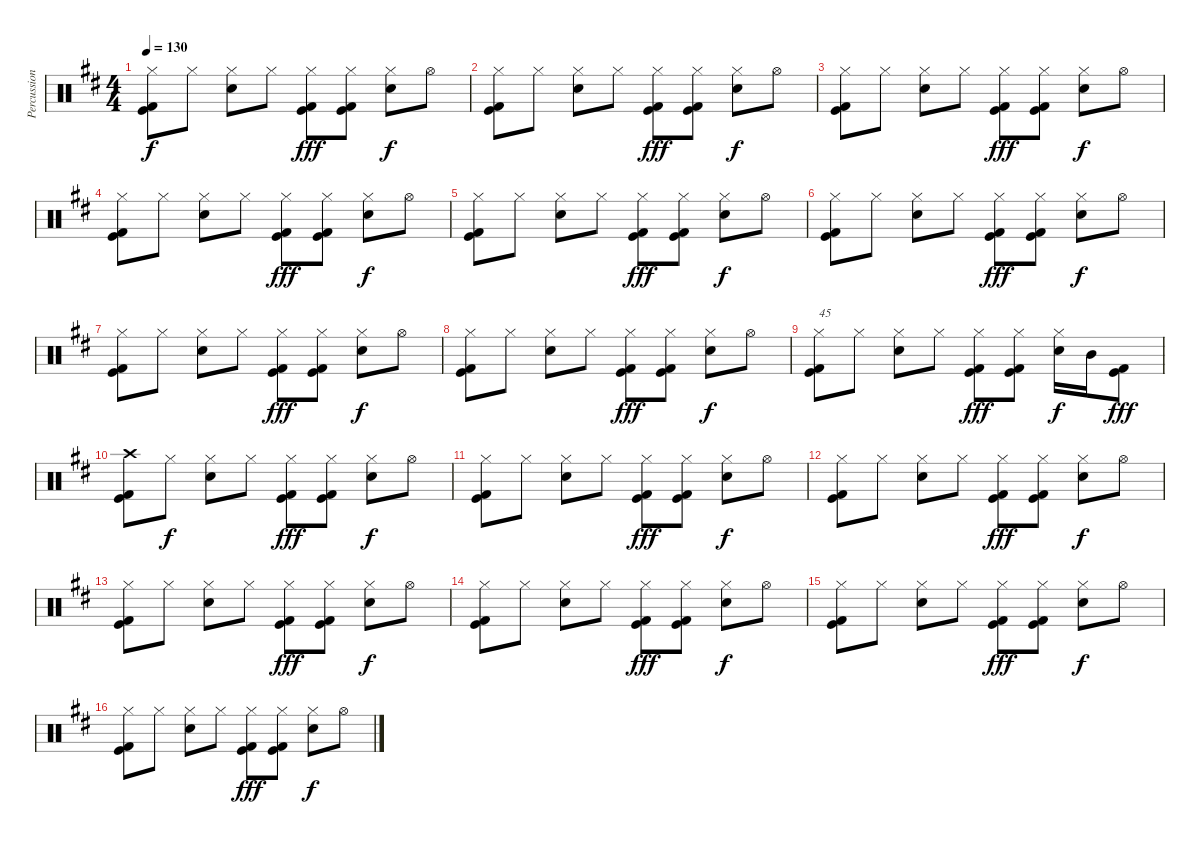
\track ("Percussion" "Percussion") {instrument percussion}
\staff {score}
\articulation defaults
\ts (4 4)
\tempo 130
\clef neutral
\ks d
("Hi-Hat (closed)" "Kick (hit)" "Kick (hit) 2").8{dy f} "Hi-Hat (closed)".8 ("Hi-Hat (closed)" "Electric Snare (hit)").8 "Hi-Hat (closed)".8 ("Hi-Hat (closed)" "Kick (hit)" "Kick (hit) 2").8{dy fff} ("Hi-Hat (closed)" "Kick (hit)" "Kick (hit) 2").8 ("Hi-Hat (closed)" "Electric Snare (hit)").8{dy f} "Hi-Hat (open)".8 |
("Hi-Hat (closed)" "Kick (hit)" "Kick (hit) 2").8 "Hi-Hat (closed)".8 ("Hi-Hat (closed)" "Electric Snare (hit)").8 "Hi-Hat (closed)".8 ("Hi-Hat (closed)" "Kick (hit)" "Kick (hit) 2").8{dy fff} ("Hi-Hat (closed)" "Kick (hit)" "Kick (hit) 2").8 ("Hi-Hat (closed)" "Electric Snare (hit)").8{dy f} "Hi-Hat (open)".8 |
("Hi-Hat (closed)" "Kick (hit)" "Kick (hit) 2").8 "Hi-Hat (closed)".8 ("Hi-Hat (closed)" "Electric Snare (hit)").8 "Hi-Hat (closed)".8 ("Hi-Hat (closed)" "Kick (hit)" "Kick (hit) 2").8{dy fff} ("Hi-Hat (closed)" "Kick (hit)" "Kick (hit) 2").8 ("Hi-Hat (closed)" "Electric Snare (hit)").8{dy f} "Hi-Hat (open)".8 |
("Hi-Hat (closed)" "Kick (hit)" "Kick (hit) 2").8 "Hi-Hat (closed)".8 ("Hi-Hat (closed)" "Electric Snare (hit)").8 "Hi-Hat (closed)".8 ("Hi-Hat (closed)" "Kick (hit)" "Kick (hit) 2").8{dy fff} ("Hi-Hat (closed)" "Kick (hit)" "Kick (hit) 2").8 ("Hi-Hat (closed)" "Electric Snare (hit)").8{dy f} "Hi-Hat (open)".8 |
("Hi-Hat (closed)" "Kick (hit)" "Kick (hit) 2").8 "Hi-Hat (closed)".8 ("Hi-Hat (closed)" "Electric Snare (hit)").8 "Hi-Hat (closed)".8 ("Hi-Hat (closed)" "Kick (hit)" "Kick (hit) 2").8{dy fff} ("Hi-Hat (closed)" "Kick (hit)" "Kick (hit) 2").8 ("Hi-Hat (closed)" "Electric Snare (hit)").8{dy f} "Hi-Hat (open)".8 |
("Hi-Hat (closed)" "Kick (hit)" "Kick (hit) 2").8 "Hi-Hat (closed)".8 ("Hi-Hat (closed)" "Electric Snare (hit)").8 "Hi-Hat (closed)".8 ("Hi-Hat (closed)" "Kick (hit)" "Kick (hit) 2").8{dy fff} ("Hi-Hat (closed)" "Kick (hit)" "Kick (hit) 2").8 ("Hi-Hat (closed)" "Electric Snare (hit)").8{dy f} "Hi-Hat (open)".8 |
("Hi-Hat (closed)" "Kick (hit)" "Kick (hit) 2").8 "Hi-Hat (closed)".8 ("Hi-Hat (closed)" "Electric Snare (hit)").8 "Hi-Hat (closed)".8 ("Hi-Hat (closed)" "Kick (hit)" "Kick (hit) 2").8{dy fff} ("Hi-Hat (closed)" "Kick (hit)" "Kick (hit) 2").8 ("Hi-Hat (closed)" "Electric Snare (hit)").8{dy f} "Hi-Hat (open)".8 |
("Hi-Hat (closed)" "Kick (hit)" "Kick (hit) 2").8 "Hi-Hat (closed)".8 ("Hi-Hat (closed)" "Electric Snare (hit)").8 "Hi-Hat (closed)".8 ("Hi-Hat (closed)" "Kick (hit)" "Kick (hit) 2").8{dy fff} ("Hi-Hat (closed)" "Kick (hit)" "Kick (hit) 2").8 ("Hi-Hat (closed)" "Electric Snare (hit)").8{dy f} "Hi-Hat (open)".8 |
("Hi-Hat (closed)" "Kick (hit)" "Kick (hit) 2").8{txt "45"} "Hi-Hat (closed)".8 ("Hi-Hat (closed)" "Electric Snare (hit)").8 "Hi-Hat (closed)".8 ("Hi-Hat (closed)" "Kick (hit)" "Kick (hit) 2").8{dy fff} ("Hi-Hat (closed)" "Kick (hit)" "Kick (hit) 2").8 ("Hi-Hat (closed)" "Electric Snare (hit)").16{dy f} "Mid Tom (hit)".16 ("Kick (hit)" "Kick (hit) 2").8{dy fff} |
("Crash high (hit)" "Kick (hit)" "Kick (hit) 2").8 "Hi-Hat (closed)".8{dy f} ("Hi-Hat (closed)" "Electric Snare (hit)").8 "Hi-Hat (closed)".8 ("Hi-Hat (closed)" "Kick (hit)" "Kick (hit) 2").8{dy fff} ("Hi-Hat (closed)" "Kick (hit)" "Kick (hit) 2").8 ("Hi-Hat (closed)" "Electric Snare (hit)").8{dy f} "Hi-Hat (open)".8 |
("Hi-Hat (closed)" "Kick (hit)" "Kick (hit) 2").8 "Hi-Hat (closed)".8 ("Hi-Hat (closed)" "Electric Snare (hit)").8 "Hi-Hat (closed)".8 ("Hi-Hat (closed)" "Kick (hit)" "Kick (hit) 2").8{dy fff} ("Hi-Hat (closed)" "Kick (hit)" "Kick (hit) 2").8 ("Hi-Hat (closed)" "Electric Snare (hit)").8{dy f} "Hi-Hat (open)".8 |
("Hi-Hat (closed)" "Kick (hit)" "Kick (hit) 2").8 "Hi-Hat (closed)".8 ("Hi-Hat (closed)" "Electric Snare (hit)").8 "Hi-Hat (closed)".8 ("Hi-Hat (closed)" "Kick (hit)" "Kick (hit) 2").8{dy fff} ("Hi-Hat (closed)" "Kick (hit)" "Kick (hit) 2").8 ("Hi-Hat (closed)" "Electric Snare (hit)").8{dy f} "Hi-Hat (open)".8 |
("Hi-Hat (closed)" "Kick (hit)" "Kick (hit) 2").8 "Hi-Hat (closed)".8 ("Hi-Hat (closed)" "Electric Snare (hit)").8 "Hi-Hat (closed)".8 ("Hi-Hat (closed)" "Kick (hit)" "Kick (hit) 2").8{dy fff} ("Hi-Hat (closed)" "Kick (hit)" "Kick (hit) 2").8 ("Hi-Hat (closed)" "Electric Snare (hit)").8{dy f} "Hi-Hat (open)".8 |
("Hi-Hat (closed)" "Kick (hit)" "Kick (hit) 2").8 "Hi-Hat (closed)".8 ("Hi-Hat (closed)" "Electric Snare (hit)").8 "Hi-Hat (closed)".8 ("Hi-Hat (closed)" "Kick (hit)" "Kick (hit) 2").8{dy fff} ("Hi-Hat (closed)" "Kick (hit)" "Kick (hit) 2").8 ("Hi-Hat (closed)" "Electric Snare (hit)").8{dy f} "Hi-Hat (open)".8 |
("Hi-Hat (closed)" "Kick (hit)" "Kick (hit) 2").8 "Hi-Hat (closed)".8 ("Hi-Hat (closed)" "Electric Snare (hit)").8 "Hi-Hat (closed)".8 ("Hi-Hat (closed)" "Kick (hit)" "Kick (hit) 2").8{dy fff} ("Hi-Hat (closed)" "Kick (hit)" "Kick (hit) 2").8 ("Hi-Hat (closed)" "Electric Snare (hit)").8{dy f} "Hi-Hat (open)".8 |
("Hi-Hat (closed)" "Kick (hit)" "Kick (hit) 2").8 "Hi-Hat (closed)".8 ("Hi-Hat (closed)" "Electric Snare (hit)").8 "Hi-Hat (closed)".8 ("Hi-Hat (closed)" "Kick (hit)" "Kick (hit) 2").8{dy fff} ("Hi-Hat (closed)" "Kick (hit)" "Kick (hit) 2").8 ("Hi-Hat (closed)" "Electric Snare (hit)").8{dy f} "Hi-Hat (open)".8
